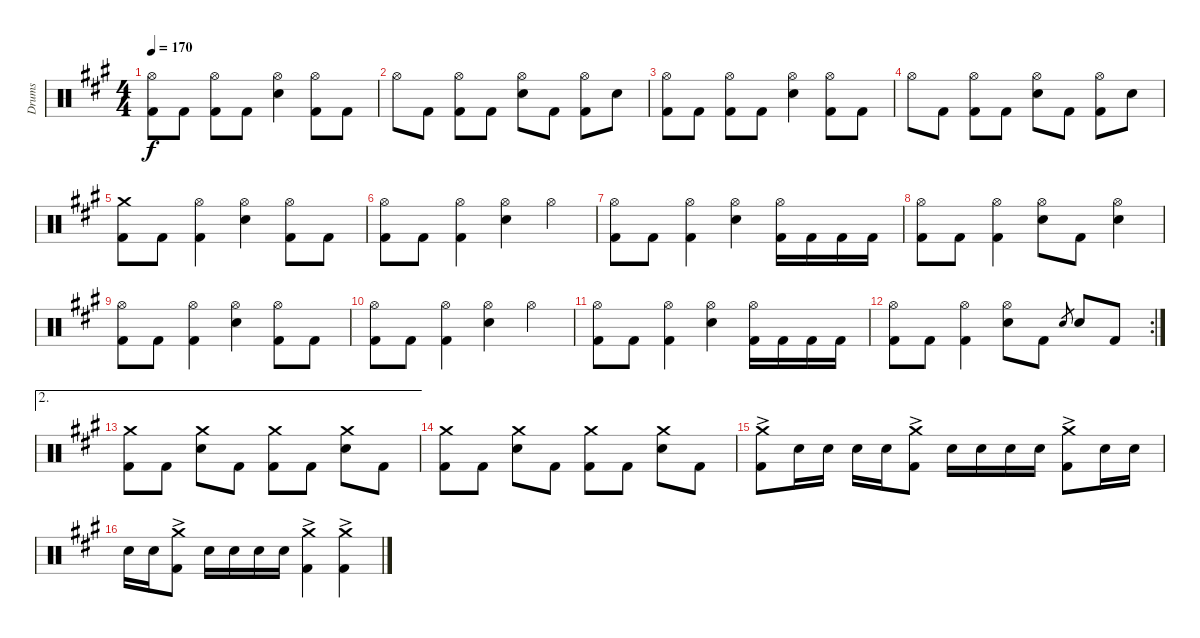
\track ("Drums" "Drums") {instrument percussion}
\staff {score}
\articulation defaults
\ts (4 4)
\tempo 170
\clef neutral
\ks a
("Hi-Hat (open)" "Kick (hit) 2").8{dy f} "Kick (hit) 2".8 ("Hi-Hat (open)" "Kick (hit) 2").8 "Kick (hit) 2".8 ("Hi-Hat (open)" "Electric Snare (hit)").4 ("Hi-Hat (open)" "Kick (hit) 2").8 "Kick (hit) 2".8 |
"Hi-Hat (open)".8 "Kick (hit) 2".8 ("Hi-Hat (open)" "Kick (hit) 2").8 "Kick (hit) 2".8 ("Hi-Hat (open)" "Electric Snare (hit)").8 "Kick (hit) 2".8 ("Hi-Hat (open)" "Kick (hit) 2").8 "Electric Snare (hit)".8 |
("Hi-Hat (open)" "Kick (hit) 2").8 "Kick (hit) 2".8 ("Hi-Hat (open)" "Kick (hit) 2").8 "Kick (hit) 2".8 ("Hi-Hat (open)" "Electric Snare (hit)").4 ("Hi-Hat (open)" "Kick (hit) 2").8 "Kick (hit) 2".8 |
"Hi-Hat (open)".8 "Kick (hit) 2".8 ("Hi-Hat (open)" "Kick (hit) 2").8 "Kick (hit) 2".8 ("Hi-Hat (open)" "Electric Snare (hit)").8 "Kick (hit) 2".8 ("Hi-Hat (open)" "Kick (hit) 2").8 "Electric Snare (hit)".8 |
("Crash medium (hit)" "Kick (hit) 2").8 "Kick (hit) 2".8 ("Hi-Hat (open)" "Kick (hit) 2").4 ("Hi-Hat (open)" "Electric Snare (hit)").4 ("Hi-Hat (open)" "Kick (hit) 2").8 "Kick (hit) 2".8 |
("Hi-Hat (open)" "Kick (hit) 2").8 "Kick (hit) 2".8 ("Hi-Hat (open)" "Kick (hit) 2").4 ("Hi-Hat (open)" "Electric Snare (hit)").4 "Hi-Hat (open)".4 |
("Hi-Hat (open)" "Kick (hit) 2").8 "Kick (hit) 2".8 ("Hi-Hat (open)" "Kick (hit) 2").4 ("Hi-Hat (open)" "Electric Snare (hit)").4 ("Hi-Hat (open)" "Kick (hit) 2").16 "Kick (hit) 2".16 "Kick (hit) 2".16 "Kick (hit) 2".16 |
("Hi-Hat (open)" "Kick (hit) 2").8 "Kick (hit) 2".8 ("Hi-Hat (open)" "Kick (hit) 2").4 ("Hi-Hat (open)" "Electric Snare (hit)").8 "Kick (hit) 2".8 ("Hi-Hat (open)" "Electric Snare (hit)").4 |
("Hi-Hat (open)" "Kick (hit) 2").8 "Kick (hit) 2".8 ("Hi-Hat (open)" "Kick (hit) 2").4 ("Hi-Hat (open)" "Electric Snare (hit)").4 ("Hi-Hat (open)" "Kick (hit) 2").8 "Kick (hit) 2".8 |
("Hi-Hat (open)" "Kick (hit) 2").8 "Kick (hit) 2".8 ("Hi-Hat (open)" "Kick (hit) 2").4 ("Hi-Hat (open)" "Electric Snare (hit)").4 "Hi-Hat (open)".4 |
("Hi-Hat (open)" "Kick (hit) 2").8 "Kick (hit) 2".8 ("Hi-Hat (open)" "Kick (hit) 2").4 ("Hi-Hat (open)" "Electric Snare (hit)").4 ("Hi-Hat (open)" "Kick (hit) 2").16 "Kick (hit) 2".16 "Kick (hit) 2".16 "Kick (hit) 2".16 |
\rc 2
("Hi-Hat (open)" "Kick (hit) 2").8 "Kick (hit) 2".8 ("Hi-Hat (open)" "Kick (hit) 2").4 ("Hi-Hat (open)" "Electric Snare (hit)").8 "Kick (hit) 2".8 "Electric Snare (hit)".8{gr} "Electric Snare (hit)".8 "Kick (hit) 2".8 |
\ae 2
("Crash medium (hit)" "Kick (hit) 2").8 "Kick (hit) 2".8 ("Crash medium (hit)" "Electric Snare (hit)").8 "Kick (hit) 2".8 ("Crash medium (hit)" "Kick (hit) 2").8 "Kick (hit) 2".8 ("Crash medium (hit)" "Electric Snare (hit)").8 "Kick (hit) 2".8 |
("Crash medium (hit)" "Kick (hit) 2").8 "Kick (hit) 2".8 ("Crash medium (hit)" "Electric Snare (hit)").8 "Kick (hit) 2".8 ("Crash medium (hit)" "Kick (hit) 2").8 "Kick (hit) 2".8 ("Crash medium (hit)" "Electric Snare (hit)").8 "Kick (hit) 2".8 |
("Crash medium (hit)" "Kick (hit) 2"{ac}).8 "Electric Snare (hit)".16 "Electric Snare (hit)".16 "Electric Snare (hit)".16 "Electric Snare (hit)".16 ("Crash medium (hit)" "Kick (hit) 2"{ac}).8 "Electric Snare (hit)".16 "Electric Snare (hit)".16 "Electric Snare (hit)".16 "Electric Snare (hit)".16 ("Crash medium (hit)" "Kick (hit) 2"{ac}).8 "Electric Snare (hit)".16 "Electric Snare (hit)".16 |
"Electric Snare (hit)".16 "Electric Snare (hit)".16 ("Crash medium (hit)" "Kick (hit) 2"{ac}).8 "Electric Snare (hit)".16 "Electric Snare (hit)".16 "Electric Snare (hit)".16 "Electric Snare (hit)".16 ("Crash medium (hit)" "Kick (hit) 2"{ac}).4 ("Crash medium (hit)" "Kick (hit) 2"{ac}).4
